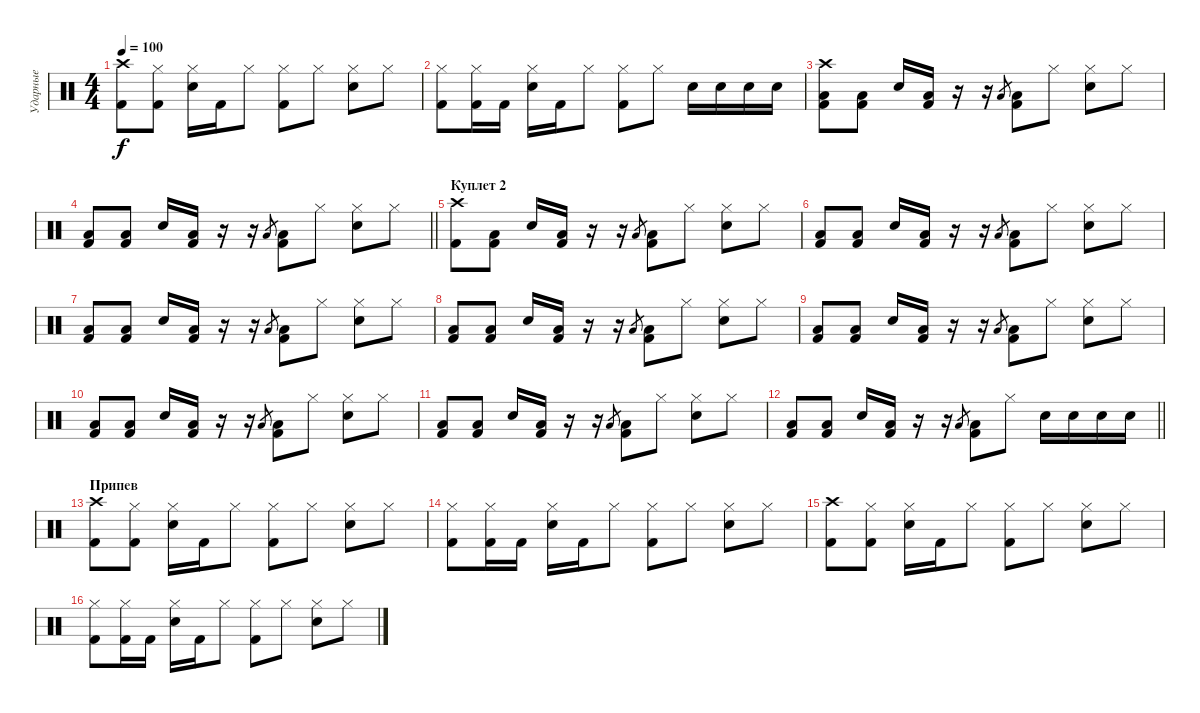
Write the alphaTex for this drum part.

\track ("Ударные" "Ударные") {instrument percussion}
\staff {score}
\articulation defaults
\ts (4 4)
\tempo 100
\clef neutral
\ks c
("Crash high (hit)" "Kick (hit) 2").8{dy f} ("Hi-Hat (closed)" "Kick (hit) 2").8 ("Hi-Hat (closed)" "Snare (hit) 2").16 "Kick (hit) 2".16 "Hi-Hat (closed)".8 ("Hi-Hat (closed)" "Kick (hit) 2").8 "Hi-Hat (closed)".8 ("Hi-Hat (closed)" "Snare (hit) 2").8 "Hi-Hat (closed)".8 |
("Hi-Hat (closed)" "Kick (hit) 2").8 ("Hi-Hat (closed)" "Kick (hit) 2").16 "Kick (hit) 2".16 ("Hi-Hat (closed)" "Snare (hit) 2").16 "Kick (hit) 2".16 "Hi-Hat (closed)".8 ("Hi-Hat (closed)" "Kick (hit) 2").8 "Hi-Hat (closed)".8 "Snare (hit) 2".16 "Snare (hit) 2".16 "Snare (hit) 2".16 "Snare (hit) 2".16 |
("Low Floor Tom (hit)" "Kick (hit) 2" "Crash high (hit)").8 ("Low Floor Tom (hit)" "Kick (hit) 2").8 "Snare (hit) 2".16 ("Low Floor Tom (hit)" "Kick (hit) 2").16 r.16 r.16 "Low Floor Tom (hit)".8{gr} ("Low Floor Tom (hit)" "Kick (hit) 2").8 "Hi-Hat (closed)".8 ("Hi-Hat (closed)" "Snare (hit) 2").8 "Hi-Hat (closed)".8 |
\barLineRight lightlight
("Low Floor Tom (hit)" "Kick (hit) 2").8 ("Low Floor Tom (hit)" "Kick (hit) 2").8 "Snare (hit) 2".16 ("Low Floor Tom (hit)" "Kick (hit) 2").16 r.16 r.16 "Low Floor Tom (hit)".8{gr} ("Low Floor Tom (hit)" "Kick (hit) 2").8 "Hi-Hat (closed)".8 ("Hi-Hat (closed)" "Snare (hit) 2").8 "Hi-Hat (closed)".8 |
\section ("" "Куплет 2")
("Crash high (hit)" "Kick (hit) 2").8 ("Low Floor Tom (hit)" "Kick (hit) 2").8 "Snare (hit) 2".16 ("Low Floor Tom (hit)" "Kick (hit) 2").16 r.16 r.16 "Low Floor Tom (hit)".8{gr} ("Low Floor Tom (hit)" "Kick (hit) 2").8 "Hi-Hat (closed)".8 ("Hi-Hat (closed)" "Snare (hit) 2").8 "Hi-Hat (closed)".8 |
("Low Floor Tom (hit)" "Kick (hit) 2").8 ("Low Floor Tom (hit)" "Kick (hit) 2").8 "Snare (hit) 2".16 ("Low Floor Tom (hit)" "Kick (hit) 2").16 r.16 r.16 "Low Floor Tom (hit)".8{gr} ("Low Floor Tom (hit)" "Kick (hit) 2").8 "Hi-Hat (closed)".8 ("Hi-Hat (closed)" "Snare (hit) 2").8 "Hi-Hat (closed)".8 |
("Low Floor Tom (hit)" "Kick (hit) 2").8 ("Low Floor Tom (hit)" "Kick (hit) 2").8 "Snare (hit) 2".16 ("Low Floor Tom (hit)" "Kick (hit) 2").16 r.16 r.16 "Low Floor Tom (hit)".8{gr} ("Low Floor Tom (hit)" "Kick (hit) 2").8 "Hi-Hat (closed)".8 ("Hi-Hat (closed)" "Snare (hit) 2").8 "Hi-Hat (closed)".8 |
("Low Floor Tom (hit)" "Kick (hit) 2").8 ("Low Floor Tom (hit)" "Kick (hit) 2").8 "Snare (hit) 2".16 ("Low Floor Tom (hit)" "Kick (hit) 2").16 r.16 r.16 "Low Floor Tom (hit)".8{gr} ("Low Floor Tom (hit)" "Kick (hit) 2").8 "Hi-Hat (closed)".8 ("Hi-Hat (closed)" "Snare (hit) 2").8 "Hi-Hat (closed)".8 |
("Low Floor Tom (hit)" "Kick (hit) 2").8 ("Low Floor Tom (hit)" "Kick (hit) 2").8 "Snare (hit) 2".16 ("Low Floor Tom (hit)" "Kick (hit) 2").16 r.16 r.16 "Low Floor Tom (hit)".8{gr} ("Low Floor Tom (hit)" "Kick (hit) 2").8 "Hi-Hat (closed)".8 ("Hi-Hat (closed)" "Snare (hit) 2").8 "Hi-Hat (closed)".8 |
("Low Floor Tom (hit)" "Kick (hit) 2").8 ("Low Floor Tom (hit)" "Kick (hit) 2").8 "Snare (hit) 2".16 ("Low Floor Tom (hit)" "Kick (hit) 2").16 r.16 r.16 "Low Floor Tom (hit)".8{gr} ("Low Floor Tom (hit)" "Kick (hit) 2").8 "Hi-Hat (closed)".8 ("Hi-Hat (closed)" "Snare (hit) 2").8 "Hi-Hat (closed)".8 |
("Low Floor Tom (hit)" "Kick (hit) 2").8 ("Low Floor Tom (hit)" "Kick (hit) 2").8 "Snare (hit) 2".16 ("Low Floor Tom (hit)" "Kick (hit) 2").16 r.16 r.16 "Low Floor Tom (hit)".8{gr} ("Low Floor Tom (hit)" "Kick (hit) 2").8 "Hi-Hat (closed)".8 ("Hi-Hat (closed)" "Snare (hit) 2").8 "Hi-Hat (closed)".8 |
\barLineRight lightlight
("Low Floor Tom (hit)" "Kick (hit) 2").8 ("Low Floor Tom (hit)" "Kick (hit) 2").8 "Snare (hit) 2".16 ("Low Floor Tom (hit)" "Kick (hit) 2").16 r.16 r.16 "Low Floor Tom (hit)".8{gr} ("Low Floor Tom (hit)" "Kick (hit) 2").8 "Hi-Hat (closed)".8 "Snare (hit) 2".16 "Snare (hit) 2".16 "Snare (hit) 2".16 "Snare (hit) 2".16 |
\section ("" "Припев")
("Crash high (hit)" "Kick (hit) 2").8 ("Hi-Hat (closed)" "Kick (hit) 2").8 ("Hi-Hat (closed)" "Snare (hit) 2").16 "Kick (hit) 2".16 "Hi-Hat (closed)".8 ("Hi-Hat (closed)" "Kick (hit) 2").8 "Hi-Hat (closed)".8 ("Hi-Hat (closed)" "Snare (hit) 2").8 "Hi-Hat (closed)".8 |
("Hi-Hat (closed)" "Kick (hit) 2").8 ("Hi-Hat (closed)" "Kick (hit) 2").16 "Kick (hit) 2".16 ("Hi-Hat (closed)" "Snare (hit) 2").16 "Kick (hit) 2".16 "Hi-Hat (closed)".8 ("Hi-Hat (closed)" "Kick (hit) 2").8 "Hi-Hat (closed)".8 ("Hi-Hat (closed)" "Snare (hit) 2").8 "Hi-Hat (closed)".8 |
("Crash high (hit)" "Kick (hit) 2").8 ("Hi-Hat (closed)" "Kick (hit) 2").8 ("Hi-Hat (closed)" "Snare (hit) 2").16 "Kick (hit) 2".16 "Hi-Hat (closed)".8 ("Hi-Hat (closed)" "Kick (hit) 2").8 "Hi-Hat (closed)".8 ("Hi-Hat (closed)" "Snare (hit) 2").8 "Hi-Hat (closed)".8 |
("Hi-Hat (closed)" "Kick (hit) 2").8 ("Hi-Hat (closed)" "Kick (hit) 2").16 "Kick (hit) 2".16 ("Hi-Hat (closed)" "Snare (hit) 2").16 "Kick (hit) 2".16 "Hi-Hat (closed)".8 ("Hi-Hat (closed)" "Kick (hit) 2").8 "Hi-Hat (closed)".8 ("Hi-Hat (closed)" "Snare (hit) 2").8 "Hi-Hat (closed)".8
